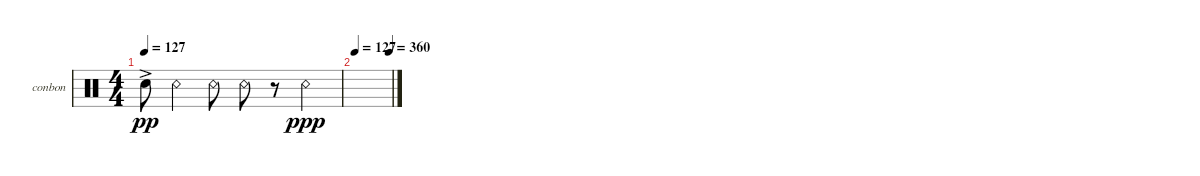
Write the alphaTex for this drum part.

\defaultSystemsLayout 4
\bracketExtendMode groupsimilarinstruments
\firstSystemTrackNameOrientation horizontal
\otherSystemsTrackNameOrientation horizontal
\track ("Bongos N Congas" "conbon") {instrument percussion}
\staff {score}
\articulation defaults
\ts (4 4)
\tempo 127
\clef neutral
\scale
0.333333
\ks c "Snare (hit) 2"{ac}.8{dy pp} "Snare (rim shot)".4 "Snare (rim shot)".8 "Snare (rim shot)".8
r.8 "Snare (rim shot)".4{dy ppp} |
\tempo 127
\tempo (360 0.94375)
\scale
0.333333
